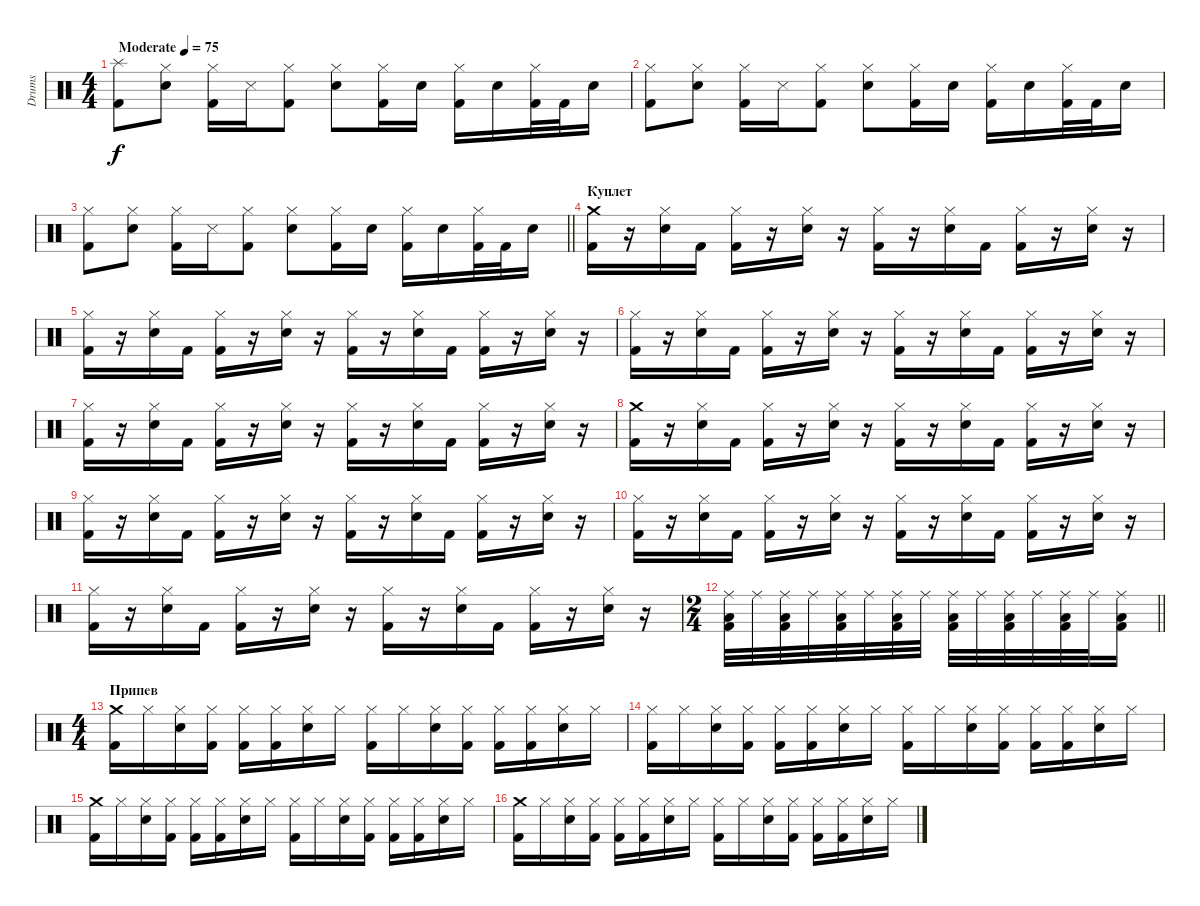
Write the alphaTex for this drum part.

\track ("Drums" "Drums") {instrument percussion}
\staff {score}
\articulation defaults
\ts (4 4)
\tempo (75 "Moderate")
\clef neutral
\ks c
("Splash (hit)" "Kick (hit) 2").8{dy f} ("Hi-Hat (closed)" "Snare (hit) 2").8 ("Hi-Hat (closed)" "Kick (hit) 2").16 "Snare (side stick) 3".16 ("Hi-Hat (closed)" "Kick (hit) 2").8 ("Hi-Hat (closed)" "Snare (hit) 2").8 ("Hi-Hat (closed)" "Kick (hit) 2").16 "Snare (hit) 2".16 ("Hi-Hat (closed)" "Kick (hit) 2").16 "Snare (hit) 2".16 ("Hi-Hat (closed)" "Kick (hit) 2").32 "Kick (hit) 2".32 "Snare (hit) 2".16 |
("Hi-Hat (closed)" "Kick (hit) 2").8 ("Hi-Hat (closed)" "Snare (hit) 2").8 ("Hi-Hat (closed)" "Kick (hit) 2").16 "Snare (side stick) 3".16 ("Hi-Hat (closed)" "Kick (hit) 2").8 ("Hi-Hat (closed)" "Snare (hit) 2").8 ("Hi-Hat (closed)" "Kick (hit) 2").16 "Snare (hit) 2".16 ("Hi-Hat (closed)" "Kick (hit) 2").16 "Snare (hit) 2".16 ("Hi-Hat (closed)" "Kick (hit) 2").32 "Kick (hit) 2".32 "Snare (hit) 2".16 |
\barLineRight lightlight
("Hi-Hat (closed)" "Kick (hit) 2").8 ("Hi-Hat (closed)" "Snare (hit) 2").8 ("Hi-Hat (closed)" "Kick (hit) 2").16 "Snare (side stick) 3".16 ("Hi-Hat (closed)" "Kick (hit) 2").8 ("Hi-Hat (closed)" "Snare (hit) 2").8 ("Hi-Hat (closed)" "Kick (hit) 2").16 "Snare (hit) 2".16 ("Hi-Hat (closed)" "Kick (hit) 2").16 "Snare (hit) 2".16 ("Hi-Hat (closed)" "Kick (hit) 2").32 "Kick (hit) 2".32 "Snare (hit) 2".16 |
\section ("" "Куплет")
("Crash medium (hit)" "Kick (hit) 2").16 r.16 ("Hi-Hat (closed)" "Snare (hit) 2").16 "Kick (hit) 2".16 ("Hi-Hat (closed)" "Kick (hit) 2").16 r.16 ("Hi-Hat (closed)" "Snare (hit) 2").16 r.16 ("Hi-Hat (closed)" "Kick (hit) 2").16 r.16 ("Hi-Hat (closed)" "Snare (hit) 2").16 "Kick (hit) 2".16 ("Hi-Hat (closed)" "Kick (hit) 2").16 r.16 ("Hi-Hat (closed)" "Snare (hit) 2").16 r.16 |
("Hi-Hat (closed)" "Kick (hit) 2").16 r.16 ("Hi-Hat (closed)" "Snare (hit) 2").16 "Kick (hit) 2".16 ("Hi-Hat (closed)" "Kick (hit) 2").16 r.16 ("Hi-Hat (closed)" "Snare (hit) 2").16 r.16 ("Hi-Hat (closed)" "Kick (hit) 2").16 r.16 ("Hi-Hat (closed)" "Snare (hit) 2").16 "Kick (hit) 2".16 ("Hi-Hat (closed)" "Kick (hit) 2").16 r.16 ("Hi-Hat (closed)" "Snare (hit) 2").16 r.16 |
("Hi-Hat (closed)" "Kick (hit) 2").16 r.16 ("Hi-Hat (closed)" "Snare (hit) 2").16 "Kick (hit) 2".16 ("Hi-Hat (closed)" "Kick (hit) 2").16 r.16 ("Hi-Hat (closed)" "Snare (hit) 2").16 r.16 ("Hi-Hat (closed)" "Kick (hit) 2").16 r.16 ("Hi-Hat (closed)" "Snare (hit) 2").16 "Kick (hit) 2".16 ("Hi-Hat (closed)" "Kick (hit) 2").16 r.16 ("Hi-Hat (closed)" "Snare (hit) 2").16 r.16 |
("Hi-Hat (closed)" "Kick (hit) 2").16 r.16 ("Hi-Hat (closed)" "Snare (hit) 2").16 "Kick (hit) 2".16 ("Hi-Hat (closed)" "Kick (hit) 2").16 r.16 ("Hi-Hat (closed)" "Snare (hit) 2").16 r.16 ("Hi-Hat (closed)" "Kick (hit) 2").16 r.16 ("Hi-Hat (closed)" "Snare (hit) 2").16 "Kick (hit) 2".16 ("Hi-Hat (closed)" "Kick (hit) 2").16 r.16 ("Hi-Hat (closed)" "Snare (hit) 2").16 r.16 |
("Crash medium (hit)" "Kick (hit) 2").16 r.16 ("Hi-Hat (closed)" "Snare (hit) 2").16 "Kick (hit) 2".16 ("Hi-Hat (closed)" "Kick (hit) 2").16 r.16 ("Hi-Hat (closed)" "Snare (hit) 2").16 r.16 ("Hi-Hat (closed)" "Kick (hit) 2").16 r.16 ("Hi-Hat (closed)" "Snare (hit) 2").16 "Kick (hit) 2".16 ("Hi-Hat (closed)" "Kick (hit) 2").16 r.16 ("Hi-Hat (closed)" "Snare (hit) 2").16 r.16 |
("Hi-Hat (closed)" "Kick (hit) 2").16 r.16 ("Hi-Hat (closed)" "Snare (hit) 2").16 "Kick (hit) 2".16 ("Hi-Hat (closed)" "Kick (hit) 2").16 r.16 ("Hi-Hat (closed)" "Snare (hit) 2").16 r.16 ("Hi-Hat (closed)" "Kick (hit) 2").16 r.16 ("Hi-Hat (closed)" "Snare (hit) 2").16 "Kick (hit) 2".16 ("Hi-Hat (closed)" "Kick (hit) 2").16 r.16 ("Hi-Hat (closed)" "Snare (hit) 2").16 r.16 |
("Hi-Hat (closed)" "Kick (hit) 2").16 r.16 ("Hi-Hat (closed)" "Snare (hit) 2").16 "Kick (hit) 2".16 ("Hi-Hat (closed)" "Kick (hit) 2").16 r.16 ("Hi-Hat (closed)" "Snare (hit) 2").16 r.16 ("Hi-Hat (closed)" "Kick (hit) 2").16 r.16 ("Hi-Hat (closed)" "Snare (hit) 2").16 "Kick (hit) 2".16 ("Hi-Hat (closed)" "Kick (hit) 2").16 r.16 ("Hi-Hat (closed)" "Snare (hit) 2").16 r.16 |
("Hi-Hat (closed)" "Kick (hit) 2").16 r.16 ("Hi-Hat (closed)" "Snare (hit) 2").16 "Kick (hit) 2".16 ("Hi-Hat (closed)" "Kick (hit) 2").16 r.16 ("Hi-Hat (closed)" "Snare (hit) 2").16 r.16 ("Hi-Hat (closed)" "Kick (hit) 2").16 r.16 ("Hi-Hat (closed)" "Snare (hit) 2").16 "Kick (hit) 2".16 ("Hi-Hat (closed)" "Kick (hit) 2").16 r.16 ("Hi-Hat (closed)" "Snare (hit) 2").16 r.16{volume 3} |
\ts (2 4)
\barLineRight lightlight
("Low Floor Tom (hit)" "Kick (hit) 2" "Ride (middle)").32{volume 13} "Ride (middle)".32 ("Low Floor Tom (hit)" "Kick (hit) 2" "Ride (middle)").32 "Ride (middle)".32 ("Low Floor Tom (hit)" "Kick (hit) 2" "Ride (middle)").32 "Ride (middle)".32 ("Low Floor Tom (hit)" "Kick (hit) 2" "Ride (middle)").32 "Ride (middle)".32 ("Low Floor Tom (hit)" "Kick (hit) 2" "Ride (middle)").32 "Ride (middle)".32 ("Low Floor Tom (hit)" "Kick (hit) 2" "Ride (middle)").32 "Ride (middle)".32 ("Low Floor Tom (hit)" "Kick (hit) 2" "Ride (middle)").32 "Ride (middle)".32 ("Low Floor Tom (hit)" "Kick (hit) 2" "Ride (middle)").16 |
\ts (4 4)
\section ("" "Припев")
("Crash medium (hit)" "Kick (hit) 2").16 "Hi-Hat (closed)".16 ("Hi-Hat (closed)" "Snare (hit) 2").16 ("Hi-Hat (closed)" "Kick (hit) 2").16 ("Hi-Hat (closed)" "Kick (hit) 2").16 ("Hi-Hat (closed)" "Kick (hit) 2").16 ("Hi-Hat (closed)" "Snare (hit) 2").16 "Hi-Hat (closed)".16 ("Hi-Hat (closed)" "Kick (hit) 2").16 "Hi-Hat (closed)".16 ("Hi-Hat (closed)" "Snare (hit) 2").16 ("Hi-Hat (closed)" "Kick (hit) 2").16 ("Hi-Hat (closed)" "Kick (hit) 2").16 ("Hi-Hat (closed)" "Kick (hit) 2").16 ("Hi-Hat (closed)" "Snare (hit) 2").16 "Hi-Hat (closed)".16 |
("Hi-Hat (closed)" "Kick (hit) 2").16 "Hi-Hat (closed)".16 ("Hi-Hat (closed)" "Snare (hit) 2").16 ("Hi-Hat (closed)" "Kick (hit) 2").16 ("Hi-Hat (closed)" "Kick (hit) 2").16 ("Hi-Hat (closed)" "Kick (hit) 2").16 ("Hi-Hat (closed)" "Snare (hit) 2").16 "Hi-Hat (closed)".16 ("Hi-Hat (closed)" "Kick (hit) 2").16 "Hi-Hat (closed)".16 ("Hi-Hat (closed)" "Snare (hit) 2").16 ("Hi-Hat (closed)" "Kick (hit) 2").16 ("Hi-Hat (closed)" "Kick (hit) 2").16 ("Hi-Hat (closed)" "Kick (hit) 2").16 ("Hi-Hat (closed)" "Snare (hit) 2").16 "Hi-Hat (closed)".16 |
("Crash medium (hit)" "Kick (hit) 2").16 "Hi-Hat (closed)".16 ("Hi-Hat (closed)" "Snare (hit) 2").16 ("Hi-Hat (closed)" "Kick (hit) 2").16 ("Hi-Hat (closed)" "Kick (hit) 2").16 ("Hi-Hat (closed)" "Kick (hit) 2").16 ("Hi-Hat (closed)" "Snare (hit) 2").16 "Hi-Hat (closed)".16 ("Hi-Hat (closed)" "Kick (hit) 2").16 "Hi-Hat (closed)".16 ("Hi-Hat (closed)" "Snare (hit) 2").16 ("Hi-Hat (closed)" "Kick (hit) 2").16 ("Hi-Hat (closed)" "Kick (hit) 2").16 ("Hi-Hat (closed)" "Kick (hit) 2").16 ("Hi-Hat (closed)" "Snare (hit) 2").16 "Hi-Hat (closed)".16 |
("Crash medium (hit)" "Kick (hit) 2").16 "Hi-Hat (closed)".16 ("Hi-Hat (closed)" "Snare (hit) 2").16 ("Hi-Hat (closed)" "Kick (hit) 2").16 ("Hi-Hat (closed)" "Kick (hit) 2").16 ("Hi-Hat (closed)" "Kick (hit) 2").16 ("Hi-Hat (closed)" "Snare (hit) 2").16 "Hi-Hat (closed)".16 ("Hi-Hat (closed)" "Kick (hit) 2").16 "Hi-Hat (closed)".16 ("Hi-Hat (closed)" "Snare (hit) 2").16 ("Hi-Hat (closed)" "Kick (hit) 2").16 ("Hi-Hat (closed)" "Kick (hit) 2").16 ("Hi-Hat (closed)" "Kick (hit) 2").16 ("Hi-Hat (closed)" "Snare (hit) 2").16 "Hi-Hat (closed)".16
